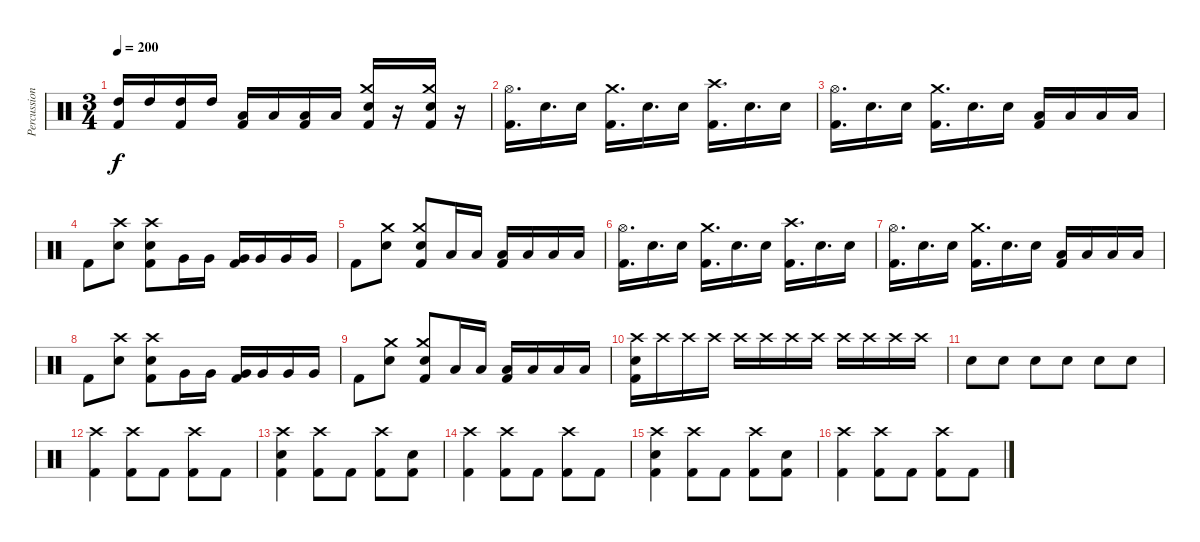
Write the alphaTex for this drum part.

\track ("Percussion" "Percussion") {instrument percussion}
\staff
\articulation defaults
\ts (3 4)
\tempo 200
\clef neutral
\ks c
("High Tom (hit)" "Kick (hit) 2").16{dy f} "High Tom (hit)".16 ("High Tom (hit)" "Kick (hit) 2").16 "High Tom (hit)".16 ("Low Tom (hit)" "Kick (hit) 2").16 "Low Tom (hit)".16 ("Low Tom (hit)" "Kick (hit) 2").16 "Low Tom (hit)".16 ("Crash medium (hit)" "Electric Snare (hit)" "Kick (hit) 2").16 r.16 ("Crash medium (hit)" "Electric Snare (hit)" "Kick (hit) 2").16 r.16 |
("Hi-Hat (open)" "Kick (hit) 2").16{d} "Electric Snare (hit)".16{d} "Electric Snare (hit)".16 ("Crash medium (hit)" "Kick (hit) 2").16{d} "Electric Snare (hit)".16{d} "Electric Snare (hit)".16 ("Crash high (hit)" "Kick (hit) 2").16{d} "Electric Snare (hit)".16{d} "Electric Snare (hit)".16 |
("Hi-Hat (open)" "Kick (hit) 2").16{d} "Electric Snare (hit)".16{d} "Electric Snare (hit)".16 ("Crash medium (hit)" "Kick (hit) 2").16{d} "Electric Snare (hit)".16{d} "Electric Snare (hit)".16 ("Low Tom (hit)" "Kick (hit) 2").16 "Low Tom (hit)".16 "Low Tom (hit)".16 "Low Tom (hit)".16 |
"Kick (hit) 2".8 ("Crash high (hit)" "Electric Snare (hit)").8 ("Crash high (hit)" "Electric Snare (hit)" "Kick (hit) 2").8 "Very Low Tom (hit)".16 "Very Low Tom (hit)".16 ("Very Low Tom (hit)" "Kick (hit) 2").16 "Very Low Tom (hit)".16 "Very Low Tom (hit)".16 "Very Low Tom (hit)".16 |
"Kick (hit) 2".8 ("Crash medium (hit)" "Electric Snare (hit)").8 ("Crash medium (hit)" "Electric Snare (hit)" "Kick (hit) 2").8 "Low Floor Tom (hit)".16 "Low Floor Tom (hit)".16 ("Low Floor Tom (hit)" "Kick (hit) 2").16 "Low Floor Tom (hit)".16 "Low Floor Tom (hit)".16 "Low Floor Tom (hit)".16 |
("Hi-Hat (open)" "Kick (hit) 2").16{d} "Electric Snare (hit)".16{d} "Electric Snare (hit)".16 ("Crash medium (hit)" "Kick (hit) 2").16{d} "Electric Snare (hit)".16{d} "Electric Snare (hit)".16 ("Crash high (hit)" "Kick (hit) 2").16{d} "Electric Snare (hit)".16{d} "Electric Snare (hit)".16 |
("Hi-Hat (open)" "Kick (hit) 2").16{d} "Electric Snare (hit)".16{d} "Electric Snare (hit)".16 ("Crash medium (hit)" "Kick (hit) 2").16{d} "Electric Snare (hit)".16{d} "Electric Snare (hit)".16 ("Low Tom (hit)" "Kick (hit) 2").16 "Low Tom (hit)".16 "Low Tom (hit)".16 "Low Tom (hit)".16 |
"Kick (hit) 2".8 ("Crash high (hit)" "Electric Snare (hit)").8 ("Crash high (hit)" "Electric Snare (hit)" "Kick (hit) 2").8 "Very Low Tom (hit)".16 "Very Low Tom (hit)".16 ("Very Low Tom (hit)" "Kick (hit) 2").16 "Very Low Tom (hit)".16 "Very Low Tom (hit)".16 "Very Low Tom (hit)".16 |
"Kick (hit) 2".8 ("Crash medium (hit)" "Electric Snare (hit)").8 ("Crash medium (hit)" "Electric Snare (hit)" "Kick (hit) 2").8 "Low Floor Tom (hit)".16 "Low Floor Tom (hit)".16 ("Low Floor Tom (hit)" "Kick (hit) 2").16 "Low Floor Tom (hit)".16 "Low Floor Tom (hit)".16 "Low Floor Tom (hit)".16 |
("Crash high (hit)" "Electric Snare (hit)" "Kick (hit) 2").16 "Crash high (hit)".16 "Crash high (hit)".16 "Crash high (hit)".16 "Crash high (hit)".16 "Crash high (hit)".16 "Crash high (hit)".16 "Crash high (hit)".16 "Crash high (hit)".16 "Crash high (hit)".16 "Crash high (hit)".16 "Crash high (hit)".16 |
"Electric Snare (hit)".8 "Electric Snare (hit)".8 "Electric Snare (hit)".8 "Electric Snare (hit)".8 "Electric Snare (hit)".8 "Electric Snare (hit)".8 |
("Crash high (hit)" "Kick (hit) 2").4 ("Crash high (hit)" "Kick (hit) 2").8 "Kick (hit) 2".8 ("Crash high (hit)" "Kick (hit) 2").8 "Kick (hit) 2".8 |
("Crash high (hit)" "Electric Snare (hit)" "Kick (hit) 2").4 ("Crash high (hit)" "Kick (hit) 2").8 "Kick (hit) 2".8 ("Crash high (hit)" "Kick (hit) 2").8 ("Electric Snare (hit)" "Kick (hit) 2").8 |
("Crash high (hit)" "Kick (hit) 2").4 ("Crash high (hit)" "Kick (hit) 2").8 "Kick (hit) 2".8 ("Crash high (hit)" "Kick (hit) 2").8 "Kick (hit) 2".8 |
("Crash high (hit)" "Electric Snare (hit)" "Kick (hit) 2").4 ("Crash high (hit)" "Kick (hit) 2").8 "Kick (hit) 2".8 ("Crash high (hit)" "Kick (hit) 2").8 ("Electric Snare (hit)" "Kick (hit) 2").8 |
("Crash high (hit)" "Kick (hit) 2").4 ("Crash high (hit)" "Kick (hit) 2").8 "Kick (hit) 2".8 ("Crash high (hit)" "Kick (hit) 2").8 "Kick (hit) 2".8
